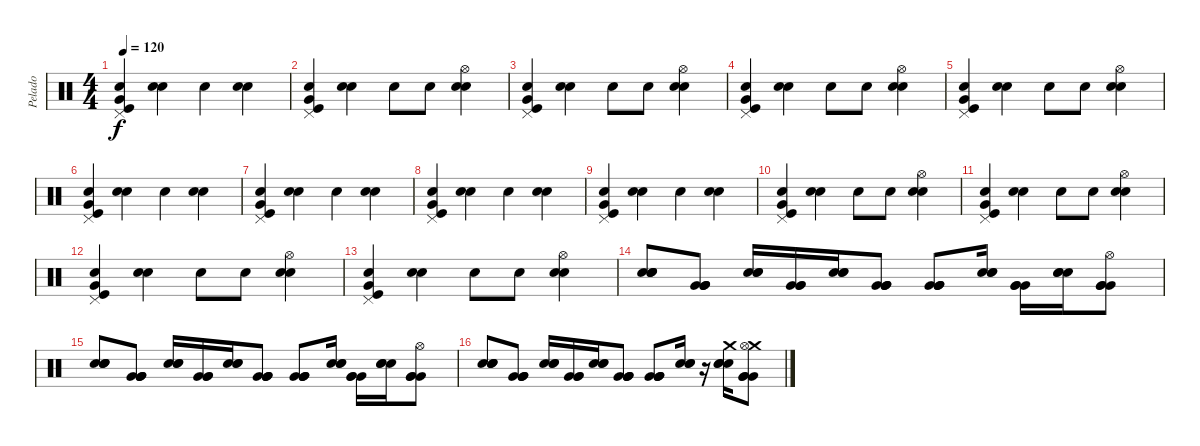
\track ("Pelado" "Pelado") {instrument percussion}
\staff {score}
\articulation defaults
\ts (4 4)
\tempo 120
\clef neutral
\ks c
("Pedal Hi-Hat (hit)" "Snare (hit) 2" "Kick (hit)" "Very Low Tom (hit)").4{dy f} ("Electric Snare (hit)" "Electric Snare (hit)").4 "Snare (hit) 2".4 ("Electric Snare (hit)" "Electric Snare (hit)").4 |
("Pedal Hi-Hat (hit)" "Snare (hit) 2" "Kick (hit)" "Very Low Tom (hit)").4 ("Electric Snare (hit)" "Electric Snare (hit)").4 "Snare (hit) 2".8 "Snare (hit) 2".8 ("Hi-Hat (open)" "Electric Snare (hit)" "Electric Snare (hit)").4 |
("Pedal Hi-Hat (hit)" "Snare (hit) 2" "Kick (hit)" "Very Low Tom (hit)").4 ("Electric Snare (hit)" "Electric Snare (hit)").4 "Snare (hit) 2".8 "Snare (hit) 2".8 ("Hi-Hat (open)" "Electric Snare (hit)" "Electric Snare (hit)").4 |
("Pedal Hi-Hat (hit)" "Snare (hit) 2" "Kick (hit)" "Very Low Tom (hit)").4 ("Electric Snare (hit)" "Electric Snare (hit)").4 "Snare (hit) 2".8 "Snare (hit) 2".8 ("Hi-Hat (open)" "Electric Snare (hit)" "Electric Snare (hit)").4 |
("Pedal Hi-Hat (hit)" "Snare (hit) 2" "Kick (hit)" "Very Low Tom (hit)").4 ("Electric Snare (hit)" "Electric Snare (hit)").4 "Snare (hit) 2".8 "Snare (hit) 2".8 ("Hi-Hat (open)" "Electric Snare (hit)" "Electric Snare (hit)").4 |
("Pedal Hi-Hat (hit)" "Snare (hit) 2" "Kick (hit)" "Very Low Tom (hit)").4 ("Electric Snare (hit)" "Electric Snare (hit)").4 "Snare (hit) 2".4 ("Electric Snare (hit)" "Electric Snare (hit)").4 |
("Pedal Hi-Hat (hit)" "Snare (hit) 2" "Kick (hit)" "Very Low Tom (hit)").4 ("Electric Snare (hit)" "Electric Snare (hit)").4 "Snare (hit) 2".4 ("Electric Snare (hit)" "Electric Snare (hit)").4 |
("Pedal Hi-Hat (hit)" "Snare (hit) 2" "Kick (hit)" "Very Low Tom (hit)").4 ("Electric Snare (hit)" "Electric Snare (hit)").4 "Snare (hit) 2".4 ("Electric Snare (hit)" "Electric Snare (hit)").4 |
("Pedal Hi-Hat (hit)" "Snare (hit) 2" "Kick (hit)" "Very Low Tom (hit)").4 ("Electric Snare (hit)" "Electric Snare (hit)").4 "Snare (hit) 2".4 ("Electric Snare (hit)" "Electric Snare (hit)").4 |
("Pedal Hi-Hat (hit)" "Snare (hit) 2" "Kick (hit)" "Very Low Tom (hit)").4 ("Electric Snare (hit)" "Electric Snare (hit)").4 "Snare (hit) 2".8 "Snare (hit) 2".8 ("Hi-Hat (open)" "Electric Snare (hit)" "Electric Snare (hit)").4 |
("Pedal Hi-Hat (hit)" "Snare (hit) 2" "Kick (hit)" "Very Low Tom (hit)").4 ("Electric Snare (hit)" "Electric Snare (hit)").4 "Snare (hit) 2".8 "Snare (hit) 2".8 ("Hi-Hat (open)" "Electric Snare (hit)" "Electric Snare (hit)").4 |
("Pedal Hi-Hat (hit)" "Snare (hit) 2" "Kick (hit)" "Very Low Tom (hit)").4 ("Electric Snare (hit)" "Electric Snare (hit)").4 "Snare (hit) 2".8 "Snare (hit) 2".8 ("Hi-Hat (open)" "Electric Snare (hit)" "Electric Snare (hit)").4 |
("Pedal Hi-Hat (hit)" "Snare (hit) 2" "Kick (hit)" "Very Low Tom (hit)").4 ("Electric Snare (hit)" "Electric Snare (hit)").4 "Snare (hit) 2".8 "Snare (hit) 2".8 ("Hi-Hat (open)" "Electric Snare (hit)" "Electric Snare (hit)").4 |
("Electric Snare (hit)" "Electric Snare (hit)" "Electric Snare (hit)" "Electric Snare (hit)").8 ("Very Low Tom (hit)" "Very Low Tom (hit)" "Very Low Tom (hit)" "Very Low Tom (hit)").8 ("Electric Snare (hit)" "Electric Snare (hit)" "Electric Snare (hit)").16 ("Very Low Tom (hit)" "Very Low Tom (hit)" "Very Low Tom (hit)").16 ("Electric Snare (hit)" "Electric Snare (hit)" "Electric Snare (hit)").16 ("Very Low Tom (hit)" "Very Low Tom (hit)" "Very Low Tom (hit)" "Very Low Tom (hit)").8 ("Very Low Tom (hit)" "Very Low Tom (hit)" "Very Low Tom (hit)" "Very Low Tom (hit)").8 ("Electric Snare (hit)" "Electric Snare (hit)" "Electric Snare (hit)").16 ("Very Low Tom (hit)" "Very Low Tom (hit)" "Very Low Tom (hit)").16 ("Electric Snare (hit)" "Electric Snare (hit)" "Electric Snare (hit)").16 ("Hi-Hat (open)" "Very Low Tom (hit)" "Very Low Tom (hit)" "Very Low Tom (hit)").8 |
("Electric Snare (hit)" "Electric Snare (hit)" "Electric Snare (hit)" "Electric Snare (hit)").8 ("Very Low Tom (hit)" "Very Low Tom (hit)" "Very Low Tom (hit)" "Very Low Tom (hit)").8 ("Electric Snare (hit)" "Electric Snare (hit)" "Electric Snare (hit)").16 ("Very Low Tom (hit)" "Very Low Tom (hit)" "Very Low Tom (hit)").16 ("Electric Snare (hit)" "Electric Snare (hit)" "Electric Snare (hit)").16 ("Very Low Tom (hit)" "Very Low Tom (hit)" "Very Low Tom (hit)" "Very Low Tom (hit)").8 ("Very Low Tom (hit)" "Very Low Tom (hit)" "Very Low Tom (hit)" "Very Low Tom (hit)").8 ("Electric Snare (hit)" "Electric Snare (hit)" "Electric Snare (hit)").16 ("Very Low Tom (hit)" "Very Low Tom (hit)" "Very Low Tom (hit)").16 ("Electric Snare (hit)" "Electric Snare (hit)" "Electric Snare (hit)").16 ("Hi-Hat (open)" "Very Low Tom (hit)" "Very Low Tom (hit)" "Very Low Tom (hit)").8 |
("Electric Snare (hit)" "Electric Snare (hit)" "Electric Snare (hit)" "Electric Snare (hit)").8 ("Very Low Tom (hit)" "Very Low Tom (hit)" "Very Low Tom (hit)" "Very Low Tom (hit)").8 ("Electric Snare (hit)" "Electric Snare (hit)" "Electric Snare (hit)").16 ("Very Low Tom (hit)" "Very Low Tom (hit)" "Very Low Tom (hit)").16 ("Electric Snare (hit)" "Electric Snare (hit)" "Electric Snare (hit)").16 ("Very Low Tom (hit)" "Very Low Tom (hit)" "Very Low Tom (hit)" "Very Low Tom (hit)").8 ("Very Low Tom (hit)" "Very Low Tom (hit)" "Very Low Tom (hit)" "Very Low Tom (hit)").8 ("Electric Snare (hit)" "Electric Snare (hit)" "Electric Snare (hit)").16 r.16 ("Crash medium (hit)" "Electric Snare (hit)" "Electric Snare (hit)" "Electric Snare (hit)").16 ("Crash medium (hit)" "Hi-Hat (open)" "Very Low Tom (hit)" "Very Low Tom (hit)" "Very Low Tom (hit)").8
